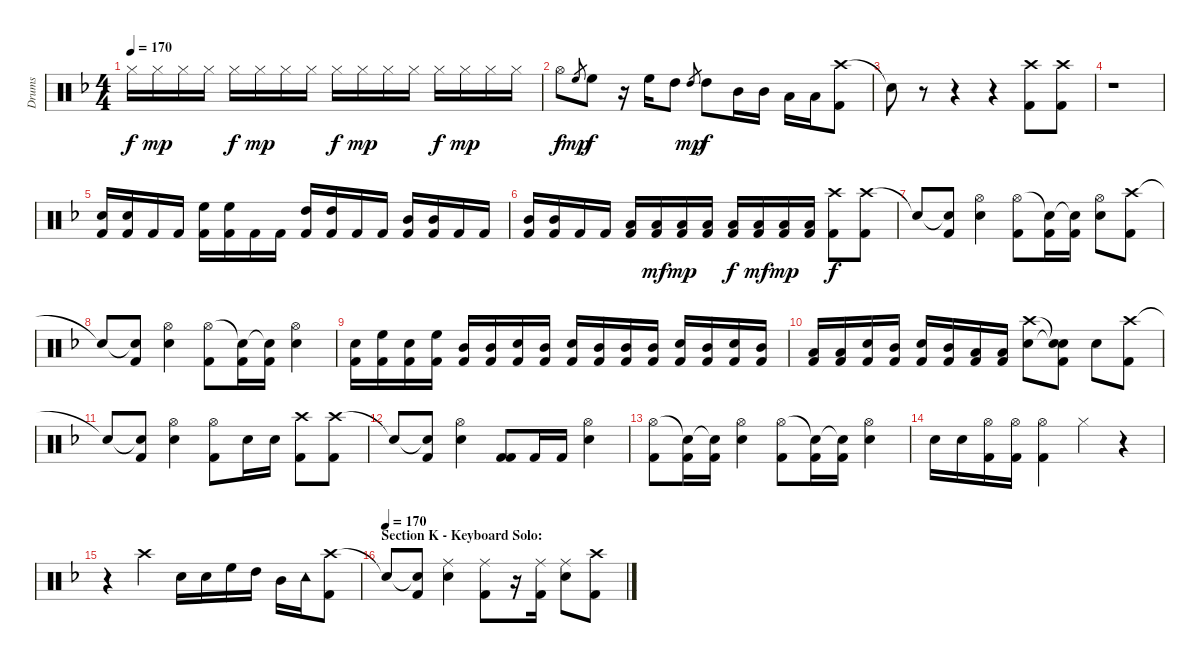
\track ("Drums" "Drums") {instrument percussion}
\staff {score}
\articulation defaults
\ts (4 4)
\tempo 170
\clef neutral
\ks f "Hi-Hat (closed)".16{dy f} "Hi-Hat (closed)".16{dy mp} "Hi-Hat (closed)".16 "Hi-Hat (closed)".16 "Hi-Hat (closed)".16{dy f} "Hi-Hat (closed)".16{dy mp} "Hi-Hat (closed)".16 "Hi-Hat (closed)".16 "Hi-Hat (closed)".16{dy f} "Hi-Hat (closed)".16{dy mp} "Hi-Hat (closed)".16 "Hi-Hat (closed)".16 "Hi-Hat (closed)".16{dy f} "Hi-Hat (closed)".16{dy mp} "Hi-Hat (closed)".16 "Hi-Hat (closed)".16
|
"Hi-Hat (open)".8{dy f} "High Floor Tom (hit)".8{gr dy mp} "High Floor Tom (hit)".8{dy f} r.16 "High Floor Tom (hit)".16 "High Tom (hit)".8 "High Tom (hit)".8{gr dy mp} "High Tom (hit)".8{dy f} "Mid Tom (hit)".16 "Mid Tom (hit)".16 "Low Tom (hit)".16 "Low Tom (hit)".16 ("Crash high (hit)" "Kick (hit) 2").8 |
"Snare (hit)"{t}.8 r.8 r.4 r.4 ("Crash high (hit)" "Kick (hit) 2").8 ("Crash high (hit)" "Kick (hit) 2").8 |
r.1 |
("Snare (hit) 2" "Kick (hit) 2").16 ("Snare (hit) 2" "Kick (hit) 2").16 "Kick (hit) 2".16 "Kick (hit) 2".16 ("High Floor Tom (hit)" "Kick (hit) 2").16 ("High Floor Tom (hit)" "Kick (hit) 2").16 "Kick (hit) 2".16 "Kick (hit) 2".16 ("High Tom (hit)" "Kick (hit) 2").16 ("High Tom (hit)" "Kick (hit) 2").16 "Kick (hit) 2".16 "Kick (hit) 2".16 ("Mid Tom (hit)" "Kick (hit) 2").16 ("Mid Tom (hit)" "Kick (hit) 2").16 "Kick (hit) 2".16 "Kick (hit) 2".16 |
("Mid Tom (hit)" "Kick (hit) 2").16 ("Mid Tom (hit)" "Kick (hit) 2").16 "Kick (hit) 2".16 "Kick (hit) 2".16 ("Low Tom (hit)" "Kick (hit) 2").16 ("Low Tom (hit)" "Kick (hit) 2").16{dy mf} ("Low Tom (hit)" "Kick (hit) 2").16{dy mp} ("Low Tom (hit)" "Kick (hit) 2").16 ("Low Tom (hit)" "Kick (hit) 2").16{dy f} ("Low Tom (hit)" "Kick (hit) 2").16{dy mf} ("Low Tom (hit)" "Kick (hit) 2").16{dy mp} ("Low Tom (hit)" "Kick (hit) 2").16 ("Crash high (hit)" "Kick (hit) 2").8{dy f} ("Crash high (hit)" "Kick (hit) 2").8 |
"Snare (hit)"{t}.8 ("Snare (hit)"{t} "Kick (hit) 2").8 ("Hi-Hat (open)" "Snare (hit) 2").4 ("Hi-Hat (open)" "Kick (hit) 2").8 ("Snare (hit)"{t} "Kick (hit) 2").16 ("Snare (hit)"{t} "Kick (hit) 2").16 ("Hi-Hat (open)" "Snare (hit) 2").8 ("Crash high (hit)" "Kick (hit) 2").8 |
"Snare (hit)"{t}.8 ("Snare (hit)"{t} "Kick (hit) 2").8 ("Hi-Hat (open)" "Snare (hit) 2").4 ("Hi-Hat (open)" "Kick (hit) 2").8 ("Snare (hit)"{t} "Kick (hit) 2").16 ("Snare (hit)"{t} "Kick (hit) 2").16 ("Hi-Hat (open)" "Snare (hit) 2").4 |
("Snare (hit) 2" "Kick (hit) 2").16 ("High Floor Tom (hit)" "Kick (hit) 2").16 ("Snare (hit) 2" "Kick (hit) 2").16 ("High Floor Tom (hit)" "Kick (hit) 2").16 ("Mid Tom (hit)" "Kick (hit) 2").16 ("Mid Tom (hit)" "Kick (hit) 2").16 ("Snare (hit) 2" "Kick (hit) 2").16 ("Mid Tom (hit)" "Kick (hit) 2").16 ("Snare (hit) 2" "Kick (hit) 2").16 ("Mid Tom (hit)" "Kick (hit) 2").16 ("Mid Tom (hit)" "Kick (hit) 2").16 ("Mid Tom (hit)" "Kick (hit) 2").16 ("Snare (hit) 2" "Kick (hit) 2").16 ("Mid Tom (hit)" "Kick (hit) 2").16 ("Snare (hit) 2" "Kick (hit) 2").16 ("Mid Tom (hit)" "Kick (hit) 2").16 |
("Low Tom (hit)" "Kick (hit) 2").16 ("Low Tom (hit)" "Kick (hit) 2").16 ("Snare (hit) 2" "Kick (hit) 2").16 ("Mid Tom (hit)" "Kick (hit) 2").16 ("Snare (hit) 2" "Kick (hit) 2").16 ("Mid Tom (hit)" "Kick (hit) 2").16 ("Low Tom (hit)" "Kick (hit) 2").16 ("Low Tom (hit)" "Kick (hit) 2").16 ("Crash high (hit)" "Snare (hit) 2").8 ("Snare (hit)"{t} "Snare (hit)"{t} "Kick (hit) 2").8 "Snare (hit) 2".8 ("Crash high (hit)" "Kick (hit) 2").8 |
"Snare (hit)"{t}.8 ("Snare (hit)"{t} "Kick (hit) 2").8 ("Hi-Hat (open)" "Snare (hit) 2").4 ("Hi-Hat (open)" "Kick (hit) 2").8 "Snare (hit) 2".16 "Snare (hit) 2".16 ("Crash high (hit)" "Kick (hit) 2").8 ("Crash high (hit)" "Kick (hit) 2").8 |
"Snare (hit)"{t}.8 ("Snare (hit)"{t} "Kick (hit) 2").8 ("Hi-Hat (open)" "Snare (hit) 2").4 ("Kick (hit) 2" "Kick (hit) 2").8 "Kick (hit) 2".16 "Kick (hit) 2".16 ("Hi-Hat (open)" "Snare (hit) 2").4 |
("Hi-Hat (open)" "Kick (hit) 2").8 ("Snare (hit)"{t} "Kick (hit) 2").16 ("Snare (hit)"{t} "Kick (hit) 2").16 ("Hi-Hat (open)" "Snare (hit) 2").4 ("Hi-Hat (open)" "Kick (hit) 2").8 ("Snare (hit)"{t} "Kick (hit) 2").16 ("Snare (hit)"{t} "Kick (hit) 2").16 ("Hi-Hat (open)" "Snare (hit) 2").4 |
"Snare (hit) 2".16 "Snare (hit) 2".16 ("Hi-Hat (open)" "Kick (hit) 2").16 ("Hi-Hat (open)" "Kick (hit) 2").16 ("Hi-Hat (open)" "Kick (hit) 2").4 "Hi-Hat (closed)".4 r.4 |
r.4 "Crash high (hit)".4 "Snare (hit) 2".16 "Snare (hit) 2".16 "High Floor Tom (hit)".16 "High Tom (hit)".16 "Mid Tom (hit)".16 "Tambourine (hit)".16 ("Crash high (hit)" "Kick (hit) 2").8 |
\section ("" "Section K - Keyboard Solo:")
\tempo (170)
"Snare (hit)"{t}.8 ("Snare (hit)"{t} "Kick (hit) 2").8 ("Ride (middle)" "Snare (hit) 2").4 ("Ride (middle)" "Kick (hit) 2").8 r.16 ("Ride (middle)" "Kick (hit) 2").16 ("Ride (middle)" "Snare (hit) 2").8 ("Crash high (hit)" "Kick (hit) 2").8
